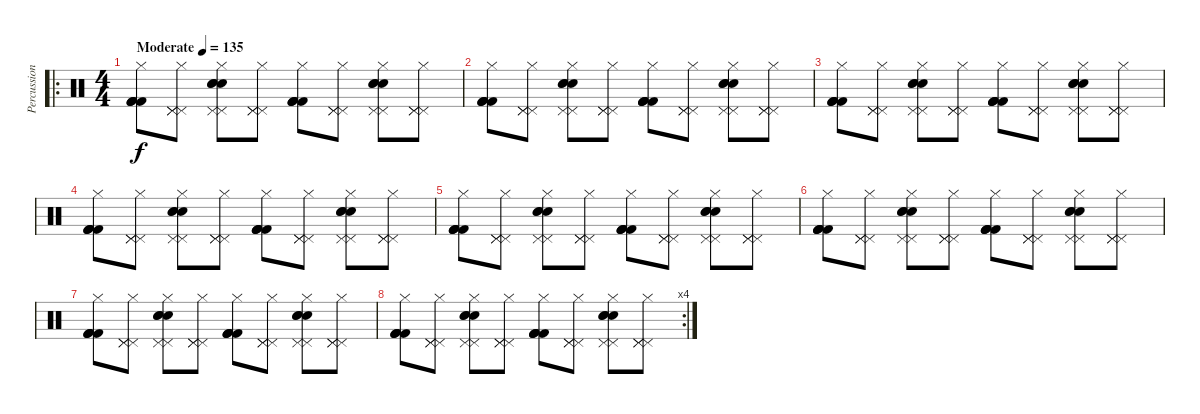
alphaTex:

\track ("Percussion" "Percussion") {instrument percussion}
\staff {score}
\articulation defaults
\ro
\ts (4 4)
\tempo (135 "Moderate")
\clef neutral
\ks c
("Hi-Hat (closed)" "Kick (hit) 2" "Kick (hit) 2" "Kick (hit) 2" "Kick (hit) 2").8{dy f} ("Pedal Hi-Hat (hit)" "Pedal Hi-Hat (hit)" "Pedal Hi-Hat (hit)" "Hi-Hat (closed)").8 ("Pedal Hi-Hat (hit)" "Pedal Hi-Hat (hit)" "Hi-Hat (closed)" "Electric Snare (hit)" "Electric Snare (hit)" "Electric Snare (hit)").8 ("Pedal Hi-Hat (hit)" "Pedal Hi-Hat (hit)" "Pedal Hi-Hat (hit)" "Hi-Hat (closed)").8 ("Hi-Hat (closed)" "Kick (hit) 2" "Kick (hit) 2" "Kick (hit) 2" "Kick (hit) 2").8 ("Pedal Hi-Hat (hit)" "Pedal Hi-Hat (hit)" "Pedal Hi-Hat (hit)" "Hi-Hat (closed)").8 ("Pedal Hi-Hat (hit)" "Pedal Hi-Hat (hit)" "Hi-Hat (closed)" "Electric Snare (hit)" "Electric Snare (hit)" "Electric Snare (hit)").8 ("Pedal Hi-Hat (hit)" "Pedal Hi-Hat (hit)" "Pedal Hi-Hat (hit)" "Hi-Hat (closed)").8 |
("Hi-Hat (closed)" "Kick (hit) 2" "Kick (hit) 2" "Kick (hit) 2" "Kick (hit) 2").8 ("Pedal Hi-Hat (hit)" "Pedal Hi-Hat (hit)" "Pedal Hi-Hat (hit)" "Hi-Hat (closed)").8 ("Pedal Hi-Hat (hit)" "Pedal Hi-Hat (hit)" "Hi-Hat (closed)" "Electric Snare (hit)" "Electric Snare (hit)" "Electric Snare (hit)").8 ("Pedal Hi-Hat (hit)" "Pedal Hi-Hat (hit)" "Pedal Hi-Hat (hit)" "Hi-Hat (closed)").8 ("Hi-Hat (closed)" "Kick (hit) 2" "Kick (hit) 2" "Kick (hit) 2" "Kick (hit) 2").8 ("Pedal Hi-Hat (hit)" "Pedal Hi-Hat (hit)" "Pedal Hi-Hat (hit)" "Hi-Hat (closed)").8 ("Pedal Hi-Hat (hit)" "Pedal Hi-Hat (hit)" "Hi-Hat (closed)" "Electric Snare (hit)" "Electric Snare (hit)" "Electric Snare (hit)").8 ("Pedal Hi-Hat (hit)" "Pedal Hi-Hat (hit)" "Pedal Hi-Hat (hit)" "Hi-Hat (closed)").8 |
("Hi-Hat (closed)" "Kick (hit) 2" "Kick (hit) 2" "Kick (hit) 2" "Kick (hit) 2").8 ("Pedal Hi-Hat (hit)" "Pedal Hi-Hat (hit)" "Pedal Hi-Hat (hit)" "Hi-Hat (closed)").8 ("Pedal Hi-Hat (hit)" "Pedal Hi-Hat (hit)" "Hi-Hat (closed)" "Electric Snare (hit)" "Electric Snare (hit)" "Electric Snare (hit)").8 ("Pedal Hi-Hat (hit)" "Pedal Hi-Hat (hit)" "Pedal Hi-Hat (hit)" "Hi-Hat (closed)").8 ("Hi-Hat (closed)" "Kick (hit) 2" "Kick (hit) 2" "Kick (hit) 2" "Kick (hit) 2").8 ("Pedal Hi-Hat (hit)" "Pedal Hi-Hat (hit)" "Pedal Hi-Hat (hit)" "Hi-Hat (closed)").8 ("Pedal Hi-Hat (hit)" "Pedal Hi-Hat (hit)" "Hi-Hat (closed)" "Electric Snare (hit)" "Electric Snare (hit)" "Electric Snare (hit)").8 ("Pedal Hi-Hat (hit)" "Pedal Hi-Hat (hit)" "Pedal Hi-Hat (hit)" "Hi-Hat (closed)").8 |
("Hi-Hat (closed)" "Kick (hit) 2" "Kick (hit) 2" "Kick (hit) 2" "Kick (hit) 2").8 ("Pedal Hi-Hat (hit)" "Pedal Hi-Hat (hit)" "Pedal Hi-Hat (hit)" "Hi-Hat (closed)").8 ("Pedal Hi-Hat (hit)" "Pedal Hi-Hat (hit)" "Hi-Hat (closed)" "Electric Snare (hit)" "Electric Snare (hit)" "Electric Snare (hit)").8 ("Pedal Hi-Hat (hit)" "Pedal Hi-Hat (hit)" "Pedal Hi-Hat (hit)" "Hi-Hat (closed)").8 ("Hi-Hat (closed)" "Kick (hit) 2" "Kick (hit) 2" "Kick (hit) 2" "Kick (hit) 2").8 ("Pedal Hi-Hat (hit)" "Pedal Hi-Hat (hit)" "Pedal Hi-Hat (hit)" "Hi-Hat (closed)").8 ("Pedal Hi-Hat (hit)" "Pedal Hi-Hat (hit)" "Hi-Hat (closed)" "Electric Snare (hit)" "Electric Snare (hit)" "Electric Snare (hit)").8 ("Pedal Hi-Hat (hit)" "Pedal Hi-Hat (hit)" "Pedal Hi-Hat (hit)" "Hi-Hat (closed)").8 |
("Hi-Hat (closed)" "Kick (hit) 2" "Kick (hit) 2" "Kick (hit) 2" "Kick (hit) 2").8 ("Pedal Hi-Hat (hit)" "Pedal Hi-Hat (hit)" "Pedal Hi-Hat (hit)" "Hi-Hat (closed)").8 ("Pedal Hi-Hat (hit)" "Pedal Hi-Hat (hit)" "Hi-Hat (closed)" "Electric Snare (hit)" "Electric Snare (hit)" "Electric Snare (hit)").8 ("Pedal Hi-Hat (hit)" "Pedal Hi-Hat (hit)" "Pedal Hi-Hat (hit)" "Hi-Hat (closed)").8 ("Hi-Hat (closed)" "Kick (hit) 2" "Kick (hit) 2" "Kick (hit) 2" "Kick (hit) 2").8 ("Pedal Hi-Hat (hit)" "Pedal Hi-Hat (hit)" "Pedal Hi-Hat (hit)" "Hi-Hat (closed)").8 ("Pedal Hi-Hat (hit)" "Pedal Hi-Hat (hit)" "Hi-Hat (closed)" "Electric Snare (hit)" "Electric Snare (hit)" "Electric Snare (hit)").8 ("Pedal Hi-Hat (hit)" "Pedal Hi-Hat (hit)" "Pedal Hi-Hat (hit)" "Hi-Hat (closed)").8 |
("Hi-Hat (closed)" "Kick (hit) 2" "Kick (hit) 2" "Kick (hit) 2" "Kick (hit) 2").8 ("Pedal Hi-Hat (hit)" "Pedal Hi-Hat (hit)" "Pedal Hi-Hat (hit)" "Hi-Hat (closed)").8 ("Pedal Hi-Hat (hit)" "Pedal Hi-Hat (hit)" "Hi-Hat (closed)" "Electric Snare (hit)" "Electric Snare (hit)" "Electric Snare (hit)").8 ("Pedal Hi-Hat (hit)" "Pedal Hi-Hat (hit)" "Pedal Hi-Hat (hit)" "Hi-Hat (closed)").8 ("Hi-Hat (closed)" "Kick (hit) 2" "Kick (hit) 2" "Kick (hit) 2" "Kick (hit) 2").8 ("Pedal Hi-Hat (hit)" "Pedal Hi-Hat (hit)" "Pedal Hi-Hat (hit)" "Hi-Hat (closed)").8 ("Pedal Hi-Hat (hit)" "Pedal Hi-Hat (hit)" "Hi-Hat (closed)" "Electric Snare (hit)" "Electric Snare (hit)" "Electric Snare (hit)").8 ("Pedal Hi-Hat (hit)" "Pedal Hi-Hat (hit)" "Pedal Hi-Hat (hit)" "Hi-Hat (closed)").8 |
("Hi-Hat (closed)" "Kick (hit) 2" "Kick (hit) 2" "Kick (hit) 2" "Kick (hit) 2").8 ("Pedal Hi-Hat (hit)" "Pedal Hi-Hat (hit)" "Pedal Hi-Hat (hit)" "Hi-Hat (closed)").8 ("Pedal Hi-Hat (hit)" "Pedal Hi-Hat (hit)" "Hi-Hat (closed)" "Electric Snare (hit)" "Electric Snare (hit)" "Electric Snare (hit)").8 ("Pedal Hi-Hat (hit)" "Pedal Hi-Hat (hit)" "Pedal Hi-Hat (hit)" "Hi-Hat (closed)").8 ("Hi-Hat (closed)" "Kick (hit) 2" "Kick (hit) 2" "Kick (hit) 2" "Kick (hit) 2").8 ("Pedal Hi-Hat (hit)" "Pedal Hi-Hat (hit)" "Pedal Hi-Hat (hit)" "Hi-Hat (closed)").8 ("Pedal Hi-Hat (hit)" "Pedal Hi-Hat (hit)" "Hi-Hat (closed)" "Electric Snare (hit)" "Electric Snare (hit)" "Electric Snare (hit)").8 ("Pedal Hi-Hat (hit)" "Pedal Hi-Hat (hit)" "Pedal Hi-Hat (hit)" "Hi-Hat (closed)").8 |
\rc 4
("Hi-Hat (closed)" "Kick (hit) 2" "Kick (hit) 2" "Kick (hit) 2" "Kick (hit) 2").8 ("Pedal Hi-Hat (hit)" "Pedal Hi-Hat (hit)" "Pedal Hi-Hat (hit)" "Hi-Hat (closed)").8 ("Pedal Hi-Hat (hit)" "Pedal Hi-Hat (hit)" "Hi-Hat (closed)" "Electric Snare (hit)" "Electric Snare (hit)" "Electric Snare (hit)").8 ("Pedal Hi-Hat (hit)" "Pedal Hi-Hat (hit)" "Pedal Hi-Hat (hit)" "Hi-Hat (closed)").8 ("Hi-Hat (closed)" "Kick (hit) 2" "Kick (hit) 2" "Kick (hit) 2" "Kick (hit) 2").8 ("Pedal Hi-Hat (hit)" "Pedal Hi-Hat (hit)" "Pedal Hi-Hat (hit)" "Hi-Hat (closed)").8 ("Pedal Hi-Hat (hit)" "Pedal Hi-Hat (hit)" "Hi-Hat (closed)" "Electric Snare (hit)" "Electric Snare (hit)" "Electric Snare (hit)").8 ("Pedal Hi-Hat (hit)" "Pedal Hi-Hat (hit)" "Pedal Hi-Hat (hit)" "Hi-Hat (closed)").8
